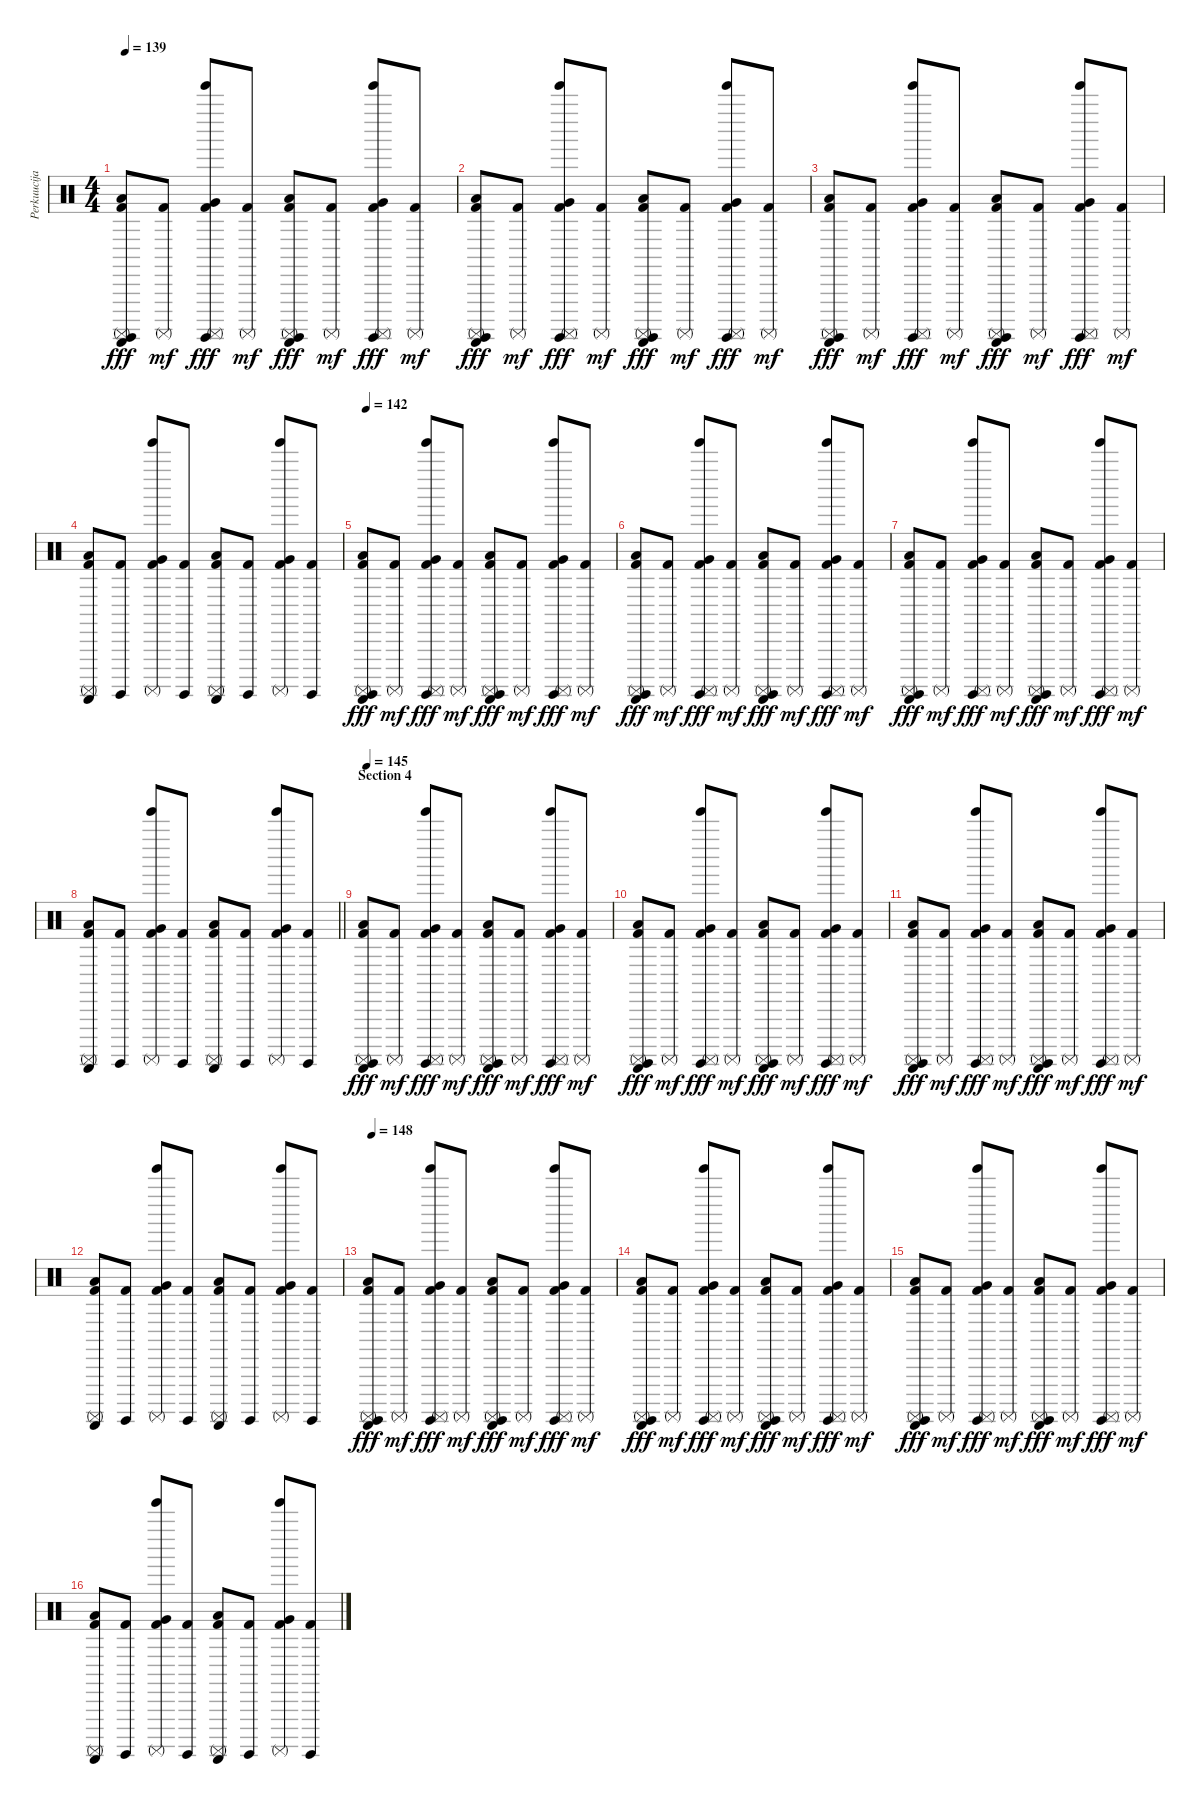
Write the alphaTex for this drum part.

\track ("Perkuucijas" "Perkuucija") {instrument percussion}
\staff {score}
\articulation defaults
\ts (4 4)
\tempo 139
\clef neutral
\ks c
("Kick (hit) 2" "Guiro (scrap-return)" "Low Floor Tom (hit)" "Surdo (hit)" "Surdo (mute)").8{dy fff} ("Kick (hit) 2" "Surdo (mute)").8{dy mf} ("Kick (hit) 2" "Tinkle Bell (hit)" "Very Low Tom (hit)" "Surdo (hit)" "Surdo (mute)").8{dy fff} ("Kick (hit) 2" "Surdo (mute)").8{dy mf} ("Kick (hit) 2" "Guiro (scrap-return)" "Low Tom (hit)" "Surdo (hit)" "Surdo (mute)").8{dy fff} ("Kick (hit) 2" "Surdo (mute)").8{dy mf} ("Kick (hit) 2" "Tinkle Bell (hit)" "Very Low Tom (hit)" "Surdo (hit)" "Surdo (mute)").8{dy fff} ("Kick (hit) 2" "Surdo (mute)").8{dy mf} |
("Kick (hit) 2" "Guiro (scrap-return)" "Low Floor Tom (hit)" "Surdo (hit)" "Surdo (mute)").8{dy fff} ("Kick (hit) 2" "Surdo (mute)").8{dy mf} ("Kick (hit) 2" "Tinkle Bell (hit)" "Very Low Tom (hit)" "Surdo (hit)" "Surdo (mute)").8{dy fff} ("Kick (hit) 2" "Surdo (mute)").8{dy mf} ("Kick (hit) 2" "Guiro (scrap-return)" "Low Tom (hit)" "Surdo (hit)" "Surdo (mute)").8{dy fff} ("Kick (hit) 2" "Surdo (mute)").8{dy mf} ("Kick (hit) 2" "Tinkle Bell (hit)" "Very Low Tom (hit)" "Surdo (hit)" "Surdo (mute)").8{dy fff} ("Kick (hit) 2" "Surdo (mute)").8{dy mf} |
("Kick (hit) 2" "Guiro (scrap-return)" "Low Floor Tom (hit)" "Surdo (hit)" "Surdo (mute)").8{dy fff} ("Kick (hit) 2" "Surdo (mute)").8{dy mf} ("Kick (hit) 2" "Tinkle Bell (hit)" "Very Low Tom (hit)" "Surdo (hit)" "Surdo (mute)").8{dy fff} ("Kick (hit) 2" "Surdo (mute)").8{dy mf} ("Kick (hit) 2" "Guiro (scrap-return)" "Low Tom (hit)" "Surdo (hit)" "Surdo (mute)").8{dy fff} ("Kick (hit) 2" "Surdo (mute)").8{dy mf} ("Kick (hit) 2" "Tinkle Bell (hit)" "Very Low Tom (hit)" "Surdo (hit)" "Surdo (mute)").8{dy fff} ("Kick (hit) 2" "Surdo (mute)").8{dy mf} |
("Kick (hit) 2" "Guiro (scrap-return)" "Low Floor Tom (hit)" "Surdo (mute)").8 ("Kick (hit) 2" "Surdo (hit)").8 ("Kick (hit) 2" "Tinkle Bell (hit)" "Very Low Tom (hit)" "Surdo (mute)").8 ("Kick (hit) 2" "Surdo (hit)").8 ("Kick (hit) 2" "Guiro (scrap-return)" "Low Tom (hit)" "Surdo (mute)").8 ("Kick (hit) 2" "Surdo (hit)").8 ("Kick (hit) 2" "Tinkle Bell (hit)" "Very Low Tom (hit)" "Surdo (mute)").8 ("Kick (hit) 2" "Surdo (hit)").8 |
\tempo 142
("Kick (hit) 2" "Guiro (scrap-return)" "Low Floor Tom (hit)" "Surdo (hit)" "Surdo (mute)").8{dy fff} ("Kick (hit) 2" "Surdo (mute)").8{dy mf} ("Kick (hit) 2" "Tinkle Bell (hit)" "Very Low Tom (hit)" "Surdo (hit)" "Surdo (mute)").8{dy fff} ("Kick (hit) 2" "Surdo (mute)").8{dy mf} ("Kick (hit) 2" "Guiro (scrap-return)" "Low Tom (hit)" "Surdo (hit)" "Surdo (mute)").8{dy fff} ("Kick (hit) 2" "Surdo (mute)").8{dy mf} ("Kick (hit) 2" "Tinkle Bell (hit)" "Very Low Tom (hit)" "Surdo (hit)" "Surdo (mute)").8{dy fff} ("Kick (hit) 2" "Surdo (mute)").8{dy mf} |
("Kick (hit) 2" "Guiro (scrap-return)" "Low Floor Tom (hit)" "Surdo (hit)" "Surdo (mute)").8{dy fff} ("Kick (hit) 2" "Surdo (mute)").8{dy mf} ("Kick (hit) 2" "Tinkle Bell (hit)" "Very Low Tom (hit)" "Surdo (hit)" "Surdo (mute)").8{dy fff} ("Kick (hit) 2" "Surdo (mute)").8{dy mf} ("Kick (hit) 2" "Guiro (scrap-return)" "Low Tom (hit)" "Surdo (hit)" "Surdo (mute)").8{dy fff} ("Kick (hit) 2" "Surdo (mute)").8{dy mf} ("Kick (hit) 2" "Tinkle Bell (hit)" "Very Low Tom (hit)" "Surdo (hit)" "Surdo (mute)").8{dy fff} ("Kick (hit) 2" "Surdo (mute)").8{dy mf} |
("Kick (hit) 2" "Guiro (scrap-return)" "Low Floor Tom (hit)" "Surdo (hit)" "Surdo (mute)").8{dy fff} ("Kick (hit) 2" "Surdo (mute)").8{dy mf} ("Kick (hit) 2" "Tinkle Bell (hit)" "Very Low Tom (hit)" "Surdo (hit)" "Surdo (mute)").8{dy fff} ("Kick (hit) 2" "Surdo (mute)").8{dy mf} ("Kick (hit) 2" "Guiro (scrap-return)" "Low Tom (hit)" "Surdo (hit)" "Surdo (mute)").8{dy fff} ("Kick (hit) 2" "Surdo (mute)").8{dy mf} ("Kick (hit) 2" "Tinkle Bell (hit)" "Very Low Tom (hit)" "Surdo (hit)" "Surdo (mute)").8{dy fff} ("Kick (hit) 2" "Surdo (mute)").8{dy mf} |
\barLineRight lightlight
("Kick (hit) 2" "Guiro (scrap-return)" "Low Floor Tom (hit)" "Surdo (mute)").8 ("Kick (hit) 2" "Surdo (hit)").8 ("Kick (hit) 2" "Tinkle Bell (hit)" "Very Low Tom (hit)" "Surdo (mute)").8 ("Kick (hit) 2" "Surdo (hit)").8 ("Kick (hit) 2" "Guiro (scrap-return)" "Low Tom (hit)" "Surdo (mute)").8 ("Kick (hit) 2" "Surdo (hit)").8 ("Kick (hit) 2" "Tinkle Bell (hit)" "Very Low Tom (hit)" "Surdo (mute)").8 ("Kick (hit) 2" "Surdo (hit)").8 |
\section ("" "Section 4")
\tempo 145
("Kick (hit) 2" "Guiro (scrap-return)" "Low Floor Tom (hit)" "Surdo (hit)" "Surdo (mute)").8{dy fff} ("Kick (hit) 2" "Surdo (mute)").8{dy mf} ("Kick (hit) 2" "Tinkle Bell (hit)" "Very Low Tom (hit)" "Surdo (hit)" "Surdo (mute)").8{dy fff} ("Kick (hit) 2" "Surdo (mute)").8{dy mf} ("Kick (hit) 2" "Guiro (scrap-return)" "Low Tom (hit)" "Surdo (hit)" "Surdo (mute)").8{dy fff} ("Kick (hit) 2" "Surdo (mute)").8{dy mf} ("Kick (hit) 2" "Tinkle Bell (hit)" "Very Low Tom (hit)" "Surdo (hit)" "Surdo (mute)").8{dy fff} ("Kick (hit) 2" "Surdo (mute)").8{dy mf} |
("Kick (hit) 2" "Guiro (scrap-return)" "Low Floor Tom (hit)" "Surdo (hit)" "Surdo (mute)").8{dy fff} ("Kick (hit) 2" "Surdo (mute)").8{dy mf} ("Kick (hit) 2" "Tinkle Bell (hit)" "Very Low Tom (hit)" "Surdo (hit)" "Surdo (mute)").8{dy fff} ("Kick (hit) 2" "Surdo (mute)").8{dy mf} ("Kick (hit) 2" "Guiro (scrap-return)" "Low Tom (hit)" "Surdo (hit)" "Surdo (mute)").8{dy fff} ("Kick (hit) 2" "Surdo (mute)").8{dy mf} ("Kick (hit) 2" "Tinkle Bell (hit)" "Very Low Tom (hit)" "Surdo (hit)" "Surdo (mute)").8{dy fff} ("Kick (hit) 2" "Surdo (mute)").8{dy mf} |
("Kick (hit) 2" "Guiro (scrap-return)" "Low Floor Tom (hit)" "Surdo (hit)" "Surdo (mute)").8{dy fff} ("Kick (hit) 2" "Surdo (mute)").8{dy mf} ("Kick (hit) 2" "Tinkle Bell (hit)" "Very Low Tom (hit)" "Surdo (hit)" "Surdo (mute)").8{dy fff} ("Kick (hit) 2" "Surdo (mute)").8{dy mf} ("Kick (hit) 2" "Guiro (scrap-return)" "Low Tom (hit)" "Surdo (hit)" "Surdo (mute)").8{dy fff} ("Kick (hit) 2" "Surdo (mute)").8{dy mf} ("Kick (hit) 2" "Tinkle Bell (hit)" "Very Low Tom (hit)" "Surdo (hit)" "Surdo (mute)").8{dy fff} ("Kick (hit) 2" "Surdo (mute)").8{dy mf} |
("Kick (hit) 2" "Guiro (scrap-return)" "Low Floor Tom (hit)" "Surdo (mute)").8 ("Kick (hit) 2" "Surdo (hit)").8 ("Kick (hit) 2" "Tinkle Bell (hit)" "Very Low Tom (hit)" "Surdo (mute)").8 ("Kick (hit) 2" "Surdo (hit)").8 ("Kick (hit) 2" "Guiro (scrap-return)" "Low Tom (hit)" "Surdo (mute)").8 ("Kick (hit) 2" "Surdo (hit)").8 ("Kick (hit) 2" "Tinkle Bell (hit)" "Very Low Tom (hit)" "Surdo (mute)").8 ("Kick (hit) 2" "Surdo (hit)").8 |
\tempo 148
("Kick (hit) 2" "Guiro (scrap-return)" "Low Floor Tom (hit)" "Surdo (hit)" "Surdo (mute)").8{dy fff} ("Kick (hit) 2" "Surdo (mute)").8{dy mf} ("Kick (hit) 2" "Tinkle Bell (hit)" "Very Low Tom (hit)" "Surdo (hit)" "Surdo (mute)").8{dy fff} ("Kick (hit) 2" "Surdo (mute)").8{dy mf} ("Kick (hit) 2" "Guiro (scrap-return)" "Low Tom (hit)" "Surdo (hit)" "Surdo (mute)").8{dy fff} ("Kick (hit) 2" "Surdo (mute)").8{dy mf} ("Kick (hit) 2" "Tinkle Bell (hit)" "Very Low Tom (hit)" "Surdo (hit)" "Surdo (mute)").8{dy fff} ("Kick (hit) 2" "Surdo (mute)").8{dy mf} |
("Kick (hit) 2" "Guiro (scrap-return)" "Low Floor Tom (hit)" "Surdo (hit)" "Surdo (mute)").8{dy fff} ("Kick (hit) 2" "Surdo (mute)").8{dy mf} ("Kick (hit) 2" "Tinkle Bell (hit)" "Very Low Tom (hit)" "Surdo (hit)" "Surdo (mute)").8{dy fff} ("Kick (hit) 2" "Surdo (mute)").8{dy mf} ("Kick (hit) 2" "Guiro (scrap-return)" "Low Tom (hit)" "Surdo (hit)" "Surdo (mute)").8{dy fff} ("Kick (hit) 2" "Surdo (mute)").8{dy mf} ("Kick (hit) 2" "Tinkle Bell (hit)" "Very Low Tom (hit)" "Surdo (hit)" "Surdo (mute)").8{dy fff} ("Kick (hit) 2" "Surdo (mute)").8{dy mf} |
("Kick (hit) 2" "Guiro (scrap-return)" "Low Floor Tom (hit)" "Surdo (hit)" "Surdo (mute)").8{dy fff} ("Kick (hit) 2" "Surdo (mute)").8{dy mf} ("Kick (hit) 2" "Tinkle Bell (hit)" "Very Low Tom (hit)" "Surdo (hit)" "Surdo (mute)").8{dy fff} ("Kick (hit) 2" "Surdo (mute)").8{dy mf} ("Kick (hit) 2" "Guiro (scrap-return)" "Low Tom (hit)" "Surdo (hit)" "Surdo (mute)").8{dy fff} ("Kick (hit) 2" "Surdo (mute)").8{dy mf} ("Kick (hit) 2" "Tinkle Bell (hit)" "Very Low Tom (hit)" "Surdo (hit)" "Surdo (mute)").8{dy fff} ("Kick (hit) 2" "Surdo (mute)").8{dy mf} |
("Kick (hit) 2" "Guiro (scrap-return)" "Low Floor Tom (hit)" "Surdo (mute)").8 ("Kick (hit) 2" "Surdo (hit)").8 ("Kick (hit) 2" "Tinkle Bell (hit)" "Very Low Tom (hit)" "Surdo (mute)").8 ("Kick (hit) 2" "Surdo (hit)").8 ("Kick (hit) 2" "Guiro (scrap-return)" "Low Tom (hit)" "Surdo (mute)").8 ("Kick (hit) 2" "Surdo (hit)").8 ("Kick (hit) 2" "Tinkle Bell (hit)" "Very Low Tom (hit)" "Surdo (mute)").8 ("Kick (hit) 2" "Surdo (hit)").8
